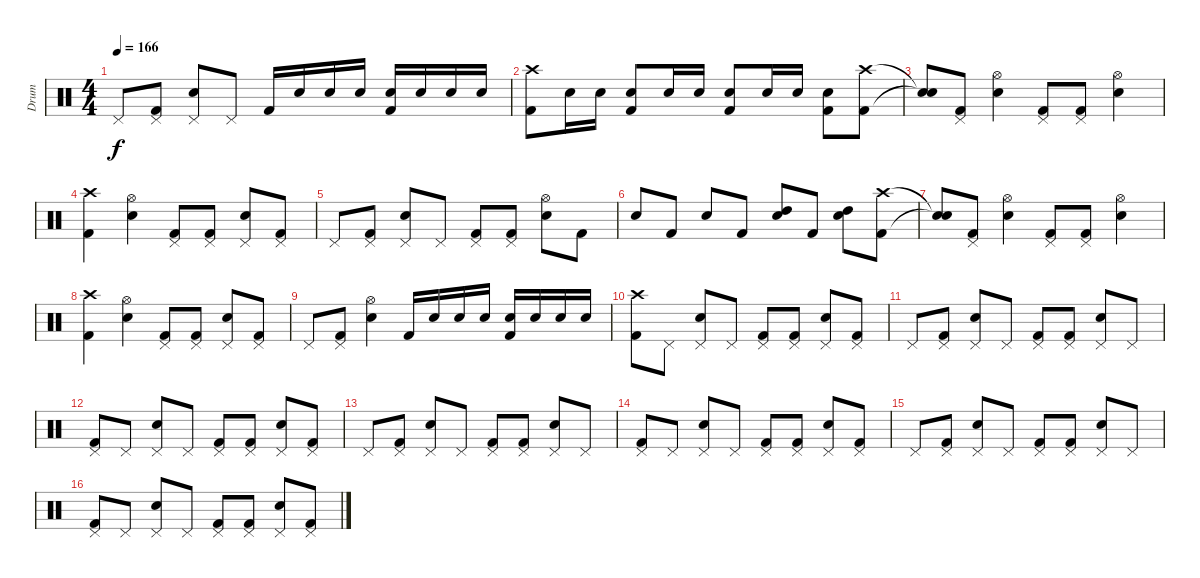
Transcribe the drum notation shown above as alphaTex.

\track ("Drum" "Drum") {instrument percussion}
\staff {score}
\articulation defaults
\ts (4 4)
\tempo 166
\clef neutral
\ks c "Pedal Hi-Hat (hit)".8{dy f}
("Pedal Hi-Hat (hit)" "Kick (hit) 2").8 ("Pedal Hi-Hat (hit)" "Electric Snare (hit)").8 "Pedal Hi-Hat (hit)".8 "Kick (hit) 2".16 "Electric Snare (hit)".16 "Electric Snare (hit)".16 "Electric Snare (hit)".16 ("Electric Snare (hit)" "Kick (hit) 2").16 "Electric Snare (hit)".16 "Electric Snare (hit)".16 "Electric Snare (hit)".16 |
("Crash high (hit)" "Kick (hit) 2").8 "Electric Snare (hit)".16 "Electric Snare (hit)".16 ("Electric Snare (hit)" "Kick (hit) 2").8 "Electric Snare (hit)".16 "Electric Snare (hit)".16 ("Electric Snare (hit)" "Kick (hit) 2").8 "Electric Snare (hit)".16 "Electric Snare (hit)".16 ("Electric Snare (hit)" "Kick (hit) 2").8 ("Crash high (hit)" "Kick (hit) 2").8 |
("Snare (hit)"{t} "Snare (hit)"{t}).8 ("Pedal Hi-Hat (hit)" "Kick (hit) 2").8 ("Hi-Hat (open)" "Electric Snare (hit)").4 ("Pedal Hi-Hat (hit)" "Kick (hit) 2").8 ("Pedal Hi-Hat (hit)" "Kick (hit) 2").8 ("Hi-Hat (open)" "Electric Snare (hit)").4 |
("Crash high (hit)" "Kick (hit) 2").4 ("Hi-Hat (open)" "Electric Snare (hit)").4 ("Pedal Hi-Hat (hit)" "Kick (hit) 2").8 ("Pedal Hi-Hat (hit)" "Kick (hit) 2").8 ("Pedal Hi-Hat (hit)" "Electric Snare (hit)").8 ("Pedal Hi-Hat (hit)" "Kick (hit) 2").8 |
"Pedal Hi-Hat (hit)".8 ("Pedal Hi-Hat (hit)" "Kick (hit) 2").8 ("Pedal Hi-Hat (hit)" "Electric Snare (hit)").8 "Pedal Hi-Hat (hit)".8 ("Pedal Hi-Hat (hit)" "Kick (hit) 2").8 ("Pedal Hi-Hat (hit)" "Kick (hit) 2").8 ("Hi-Hat (open)" "Electric Snare (hit)").8 "Kick (hit) 2".8 |
"Electric Snare (hit)".8 "Kick (hit) 2".8 "Electric Snare (hit)".8 "Kick (hit) 2".8 ("High Tom (hit)" "Electric Snare (hit)").8 "Kick (hit) 2".8 ("High Tom (hit)" "Electric Snare (hit)").8 ("Crash high (hit)" "Kick (hit) 2").8 |
("Snare (hit)"{t} "Snare (hit)"{t}).8 ("Pedal Hi-Hat (hit)" "Kick (hit) 2").8 ("Hi-Hat (open)" "Electric Snare (hit)").4 ("Pedal Hi-Hat (hit)" "Kick (hit) 2").8 ("Pedal Hi-Hat (hit)" "Kick (hit) 2").8 ("Hi-Hat (open)" "Electric Snare (hit)").4 |
("Crash high (hit)" "Kick (hit) 2").4 ("Hi-Hat (open)" "Electric Snare (hit)").4 ("Pedal Hi-Hat (hit)" "Kick (hit) 2").8 ("Pedal Hi-Hat (hit)" "Kick (hit) 2").8 ("Pedal Hi-Hat (hit)" "Electric Snare (hit)").8 ("Pedal Hi-Hat (hit)" "Kick (hit) 2").8 |
"Pedal Hi-Hat (hit)".8 ("Pedal Hi-Hat (hit)" "Kick (hit) 2").8 ("Hi-Hat (open)" "Electric Snare (hit)").4 "Kick (hit) 2".16 "Electric Snare (hit)".16 "Electric Snare (hit)".16 "Electric Snare (hit)".16 ("Electric Snare (hit)" "Kick (hit) 2").16 "Electric Snare (hit)".16 "Electric Snare (hit)".16 "Electric Snare (hit)".16 |
("Crash high (hit)" "Kick (hit) 2").8 "Pedal Hi-Hat (hit)".8 ("Pedal Hi-Hat (hit)" "Electric Snare (hit)").8 "Pedal Hi-Hat (hit)".8 ("Pedal Hi-Hat (hit)" "Kick (hit) 2").8 ("Pedal Hi-Hat (hit)" "Kick (hit) 2").8 ("Pedal Hi-Hat (hit)" "Electric Snare (hit)").8 ("Pedal Hi-Hat (hit)" "Kick (hit) 2").8 |
"Pedal Hi-Hat (hit)".8 ("Pedal Hi-Hat (hit)" "Kick (hit) 2").8 ("Pedal Hi-Hat (hit)" "Electric Snare (hit)").8 "Pedal Hi-Hat (hit)".8 ("Pedal Hi-Hat (hit)" "Kick (hit) 2").8 ("Pedal Hi-Hat (hit)" "Kick (hit) 2").8 ("Pedal Hi-Hat (hit)" "Electric Snare (hit)").8 "Pedal Hi-Hat (hit)".8 |
("Pedal Hi-Hat (hit)" "Kick (hit) 2").8 "Pedal Hi-Hat (hit)".8 ("Pedal Hi-Hat (hit)" "Electric Snare (hit)").8 "Pedal Hi-Hat (hit)".8 ("Pedal Hi-Hat (hit)" "Kick (hit) 2").8 ("Pedal Hi-Hat (hit)" "Kick (hit) 2").8 ("Pedal Hi-Hat (hit)" "Electric Snare (hit)").8 ("Pedal Hi-Hat (hit)" "Kick (hit) 2").8 |
"Pedal Hi-Hat (hit)".8 ("Pedal Hi-Hat (hit)" "Kick (hit) 2").8 ("Pedal Hi-Hat (hit)" "Electric Snare (hit)").8 "Pedal Hi-Hat (hit)".8 ("Pedal Hi-Hat (hit)" "Kick (hit) 2").8 ("Pedal Hi-Hat (hit)" "Kick (hit) 2").8 ("Pedal Hi-Hat (hit)" "Electric Snare (hit)").8 "Pedal Hi-Hat (hit)".8 |
("Pedal Hi-Hat (hit)" "Kick (hit) 2").8 "Pedal Hi-Hat (hit)".8 ("Pedal Hi-Hat (hit)" "Electric Snare (hit)").8 "Pedal Hi-Hat (hit)".8 ("Pedal Hi-Hat (hit)" "Kick (hit) 2").8 ("Pedal Hi-Hat (hit)" "Kick (hit) 2").8 ("Pedal Hi-Hat (hit)" "Electric Snare (hit)").8 ("Pedal Hi-Hat (hit)" "Kick (hit) 2").8 |
"Pedal Hi-Hat (hit)".8 ("Pedal Hi-Hat (hit)" "Kick (hit) 2").8 ("Pedal Hi-Hat (hit)" "Electric Snare (hit)").8 "Pedal Hi-Hat (hit)".8 ("Pedal Hi-Hat (hit)" "Kick (hit) 2").8 ("Pedal Hi-Hat (hit)" "Kick (hit) 2").8 ("Pedal Hi-Hat (hit)" "Electric Snare (hit)").8 "Pedal Hi-Hat (hit)".8 |
("Pedal Hi-Hat (hit)" "Kick (hit) 2").8 "Pedal Hi-Hat (hit)".8 ("Pedal Hi-Hat (hit)" "Electric Snare (hit)").8 "Pedal Hi-Hat (hit)".8 ("Pedal Hi-Hat (hit)" "Kick (hit) 2").8 ("Pedal Hi-Hat (hit)" "Kick (hit) 2").8 ("Pedal Hi-Hat (hit)" "Electric Snare (hit)").8 ("Pedal Hi-Hat (hit)" "Kick (hit) 2").8
